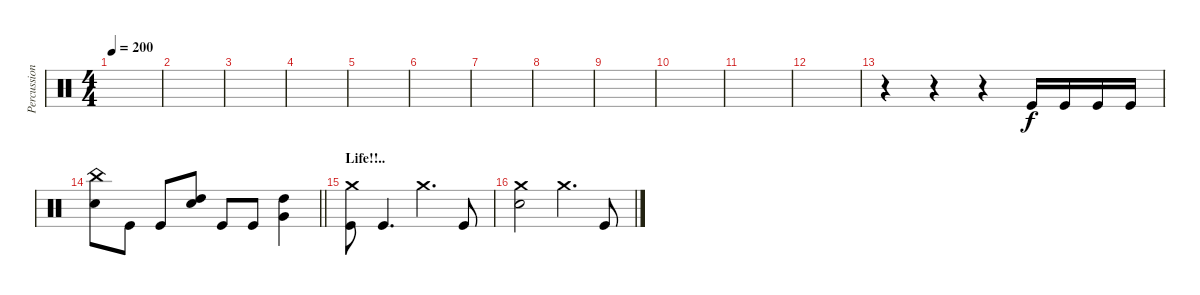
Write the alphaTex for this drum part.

\track ("Percussion" "Percussion") {instrument percussion}
\staff {score}
\articulation defaults
\ts (4 4)
\tempo 200
\clef neutral
\ks c
|
|
|
|
|
|
|
|
|
|
|
|
r.4 r.4 r.4 "Kick (hit)".16 "Kick (hit)".16 "Kick (hit)".16 "Kick (hit)".16 |
\barLineRight lightlight
("China (hit)" "Snare (hit) 2").8 "Kick (hit)".8 "Kick (hit)".8 ("Snare (hit) 2" "High Tom (hit)").8 "Kick (hit)".8 "Kick (hit)".8 ("High Tom (hit)" "Very Low Tom (hit)").4 |
\section ("" "Life!!..")
("Crash medium (hit)" "Kick (hit)").8 "Kick (hit)".4{d} "Crash medium (hit)".4{d} "Kick (hit)".8 |
("Crash medium (hit)" "Snare (hit) 2").2 "Crash medium (hit)".4{d} "Kick (hit)".8
